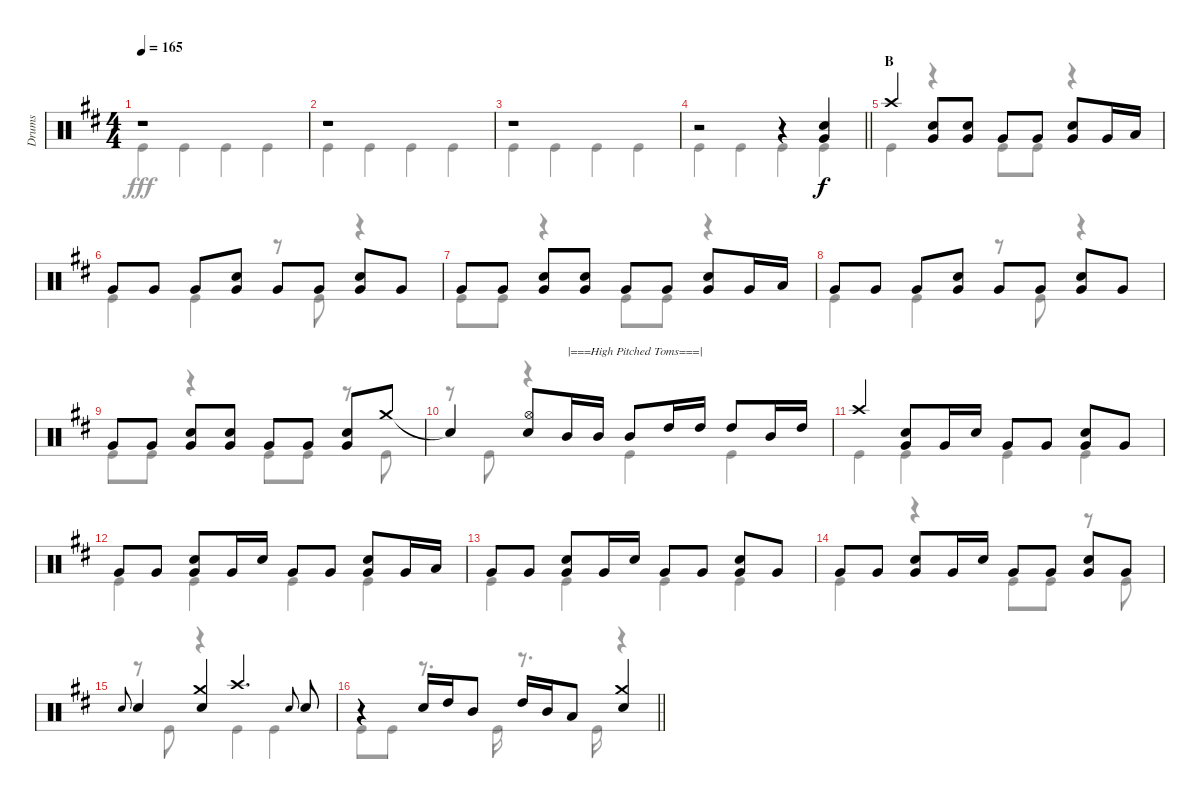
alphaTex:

\track ("Drums" "Drums") {instrument percussion}
\staff {score}
\articulation defaults
\voice
\ts (4 4)
\tempo 165
\clef neutral
\ks d
r.1{dy f} |
r.1 |
r.1 |
\barLineRight lightlight
r.2 r.4 ("Snare (hit) 2" "Very Low Tom (hit)").4 |
\section ("" "B")
"Crash high (hit)".4 ("Snare (hit) 2" "Very Low Tom (hit)").8 ("Snare (hit) 2" "Very Low Tom (hit)").8 "Very Low Tom (hit)".8 "Very Low Tom (hit)".8 ("Snare (hit) 2" "Very Low Tom (hit)").8 "Very Low Tom (hit)".16 "Low Tom (hit)".16 |
"Very Low Tom (hit)".8 "Very Low Tom (hit)".8 "Very Low Tom (hit)".8 ("Snare (hit) 2" "Very Low Tom (hit)").8 "Very Low Tom (hit)".8 "Very Low Tom (hit)".8 ("Snare (hit) 2" "Very Low Tom (hit)").8 "Very Low Tom (hit)".8 |
"Very Low Tom (hit)".8 "Very Low Tom (hit)".8 ("Snare (hit) 2" "Very Low Tom (hit)").8 ("Snare (hit) 2" "Very Low Tom (hit)").8 "Very Low Tom (hit)".8 "Very Low Tom (hit)".8 ("Snare (hit) 2" "Very Low Tom (hit)").8 "Very Low Tom (hit)".16 "Low Tom (hit)".16 |
"Very Low Tom (hit)".8 "Very Low Tom (hit)".8 "Very Low Tom (hit)".8 ("Snare (hit) 2" "Very Low Tom (hit)").8 "Very Low Tom (hit)".8 "Very Low Tom (hit)".8 ("Snare (hit) 2" "Very Low Tom (hit)").8 "Very Low Tom (hit)".8 |
"Very Low Tom (hit)".8 "Very Low Tom (hit)".8 ("Snare (hit) 2" "Very Low Tom (hit)").8 ("Snare (hit) 2" "Very Low Tom (hit)").8 "Very Low Tom (hit)".8 "Very Low Tom (hit)".8 ("Snare (hit) 2" "Very Low Tom (hit)").8 "Crash medium (hit)".8 |
"Snare (hit)"{t}.4 ("Hi-Hat (open)" "Snare (hit) 2").8 "Mid Tom (hit)".16{txt "|===High Pitched Toms===|"} "Mid Tom (hit)".16 "Mid Tom (hit)".8 "High Tom (hit)".16 "High Tom (hit)".16 "High Tom (hit)".8 "Mid Tom (hit)".16 "High Tom (hit)".16 |
"Crash high (hit)".4 ("Snare (hit) 2" "Very Low Tom (hit)").8 "Very Low Tom (hit)".16 "Snare (hit) 2".16 "Very Low Tom (hit)".8 "Very Low Tom (hit)".8 ("Snare (hit) 2" "Very Low Tom (hit)").8 "Very Low Tom (hit)".8 |
"Very Low Tom (hit)".8 "Very Low Tom (hit)".8 ("Snare (hit) 2" "Very Low Tom (hit)").8 "Very Low Tom (hit)".16 "Snare (hit) 2".16 "Very Low Tom (hit)".8 "Very Low Tom (hit)".8 ("Snare (hit) 2" "Very Low Tom (hit)").8 "Very Low Tom (hit)".16 "Low Tom (hit)".16 |
"Very Low Tom (hit)".8 "Very Low Tom (hit)".8 ("Snare (hit) 2" "Very Low Tom (hit)").8 "Very Low Tom (hit)".16 "Snare (hit) 2".16 "Very Low Tom (hit)".8 "Very Low Tom (hit)".8 ("Snare (hit) 2" "Very Low Tom (hit)").8 "Very Low Tom (hit)".8 |
"Very Low Tom (hit)".8 "Very Low Tom (hit)".8 ("Snare (hit) 2" "Very Low Tom (hit)").8 "Very Low Tom (hit)".16 "Snare (hit) 2".16 "Very Low Tom (hit)".8 "Very Low Tom (hit)".8 ("Snare (hit) 2" "Very Low Tom (hit)").8 "Very Low Tom (hit)".8 |
"Snare (hit) 2".8{gr onbeat} "Snare (hit) 2".4 ("Crash medium (hit)" "Snare (hit) 2").4 "Crash high (hit)".4{d} "Snare (hit) 2".8{gr onbeat} "Snare (hit) 2".8 |
\barLineRight lightlight
r.4 "Snare (hit) 2".16 "High Tom (hit)".16 "Mid Tom (hit)".8 "High Tom (hit)".16 "Mid Tom (hit)".16 "Low Tom (hit)".8 ("Crash medium (hit)" "Snare (hit) 2").4
\voice
\clef neutral
\ottava regular
\simile none
\ks d "Kick (hit)".4{dy fff} "Kick (hit)".4 "Kick (hit)".4 "Kick (hit)".4
|
"Kick (hit)".4 "Kick (hit)".4 "Kick (hit)".4 "Kick (hit)".4 |
"Kick (hit)".4 "Kick (hit)".4 "Kick (hit)".4 "Kick (hit)".4 |
\barLineRight lightlight "Kick (hit)".4 "Kick (hit)".4 "Kick (hit)".4 "Kick (hit)".4
|
"Kick (hit)".4 r.4 "Kick (hit)".8 "Kick (hit)".8 r.4 |
"Kick (hit)".4 "Kick (hit)".4 r.8 "Kick (hit)".8 r.4 |
"Kick (hit)".8 "Kick (hit)".8 r.4 "Kick (hit)".8 "Kick (hit)".8 r.4 |
"Kick (hit)".4 "Kick (hit)".4 r.8 "Kick (hit)".8 r.4 |
"Kick (hit)".8 "Kick (hit)".8 r.4 "Kick (hit)".8 "Kick (hit)".8 r.8 "Kick (hit)".8 |
r.8 "Kick (hit)".8 r.4 "Kick (hit)".4 "Kick (hit)".4 |
"Kick (hit)".4 "Kick (hit)".4 "Kick (hit)".4 "Kick (hit)".4 |
"Kick (hit)".4 "Kick (hit)".4 "Kick (hit)".4 "Kick (hit)".4 |
"Kick (hit)".4 "Kick (hit)".4 "Kick (hit)".4 "Kick (hit)".4 |
"Kick (hit)".4 r.4 "Kick (hit)".8 "Kick (hit)".8 r.8 "Kick (hit)".8 |
r.8 "Kick (hit)".8 r.4 "Kick (hit)".4 "Kick (hit)".4 |
\barLineRight lightlight "Kick (hit)".8 "Kick (hit)".8
r.8{d} "Kick (hit)".16 r.8{d} "Kick (hit)".16 r.4
